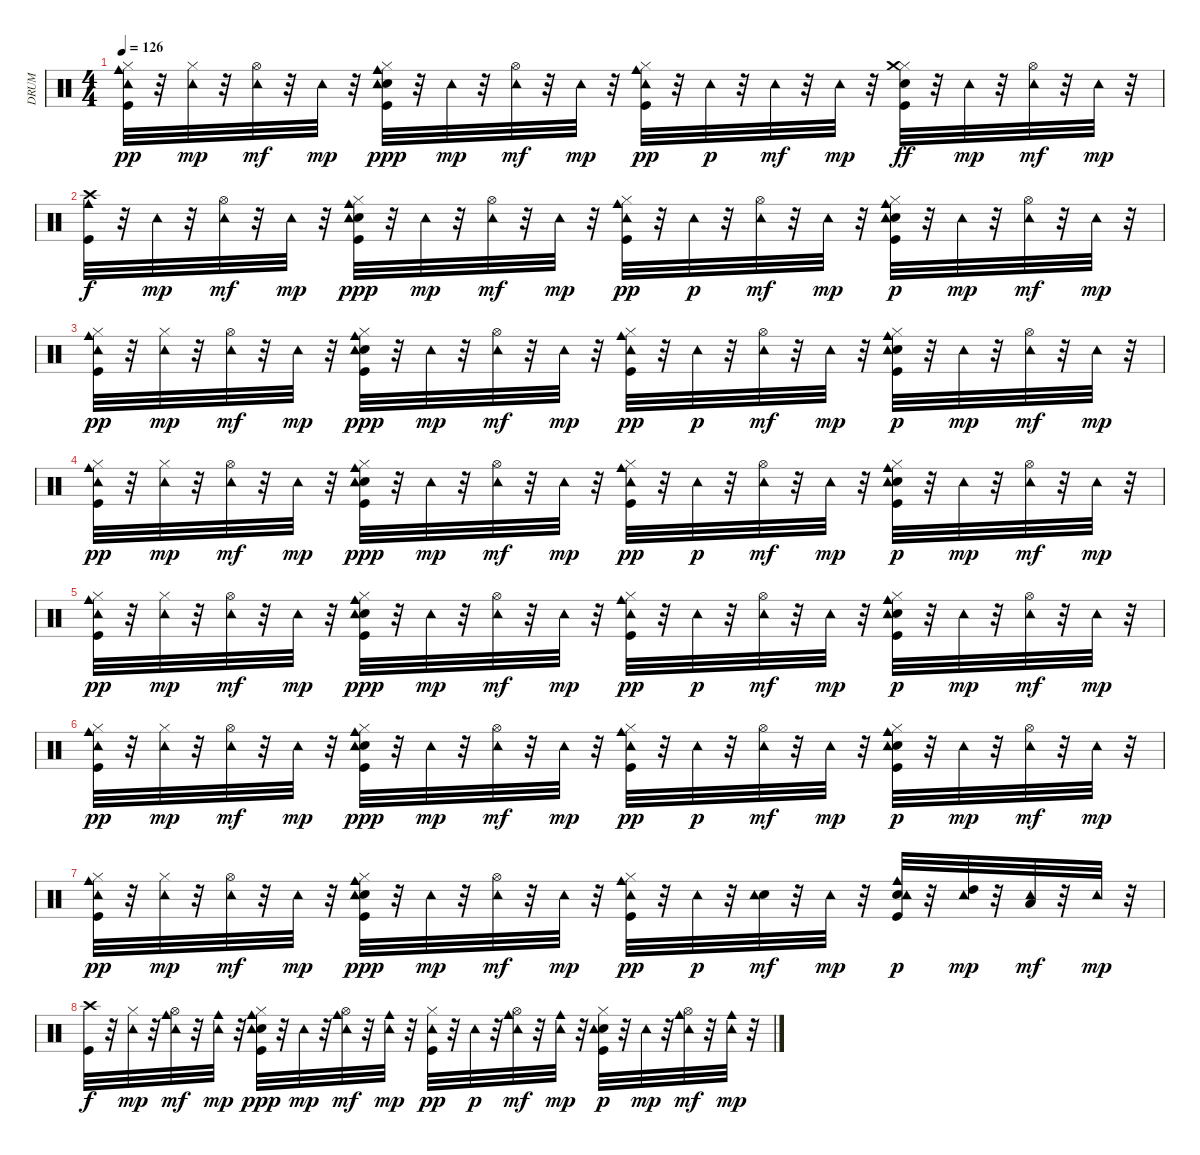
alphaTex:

\track ("DRUM" "DRUM") {instrument percussion}
\staff {score}
\articulation defaults
\ts (4 4)
\tempo 126
\clef neutral
\ks c
("Kick (hit)" "Hi-Hat (closed)" "Tambourine (hit)" "Cowbell medium (hit)").32{dy pp} r.32 ("Hi-Hat (closed)" "Tambourine (hit)").32{dy mp} r.32 ("Hi-Hat (open)" "Tambourine (hit)").32{dy mf} r.32 "Tambourine (hit)".32{dy mp} r.32 ("Kick (hit)" "Electric Snare (hit)" "Hi-Hat (closed)" "Tambourine (hit)" "Cowbell medium (hit)").32{dy ppp} r.32 "Tambourine (hit)".32{dy mp} r.32 ("Hi-Hat (open)" "Tambourine (hit)").32{dy mf} r.32 "Tambourine (hit)".32{dy mp} r.32 ("Kick (hit)" "Hi-Hat (closed)" "Tambourine (hit)" "Cowbell medium (hit)").32{dy pp} r.32 "Tambourine (hit)".32{dy p} r.32 "Tambourine (hit)".32{dy mf} r.32 "Tambourine (hit)".32{dy mp} r.32 ("Kick (hit)" "Electric Snare (hit)" "Hi-Hat (closed)" "Crash medium (hit)").32{dy ff} r.32 "Tambourine (hit)".32{dy mp} r.32 ("Hi-Hat (open)" "Tambourine (hit)").32{dy mf} r.32 "Tambourine (hit)".32{dy mp} r.32 |
("Kick (hit)" "Crash high (hit)" "Cowbell medium (hit)").32{dy f} r.32 "Tambourine (hit)".32{dy mp} r.32 ("Hi-Hat (open)" "Tambourine (hit)").32{dy mf} r.32 "Tambourine (hit)".32{dy mp} r.32 ("Kick (hit)" "Electric Snare (hit)" "Hi-Hat (closed)" "Tambourine (hit)" "Cowbell medium (hit)").32{dy ppp} r.32 "Tambourine (hit)".32{dy mp} r.32 ("Hi-Hat (open)" "Tambourine (hit)").32{dy mf} r.32 "Tambourine (hit)".32{dy mp} r.32 ("Kick (hit)" "Hi-Hat (closed)" "Tambourine (hit)" "Cowbell medium (hit)").32{dy pp} r.32 "Tambourine (hit)".32{dy p} r.32 ("Hi-Hat (open)" "Tambourine (hit)").32{dy mf} r.32 "Tambourine (hit)".32{dy mp} r.32 ("Kick (hit)" "Electric Snare (hit)" "Hi-Hat (closed)" "Tambourine (hit)" "Cowbell medium (hit)").32{dy p} r.32 "Tambourine (hit)".32{dy mp} r.32 ("Hi-Hat (open)" "Tambourine (hit)").32{dy mf} r.32 "Tambourine (hit)".32{dy mp} r.32 |
("Kick (hit)" "Hi-Hat (closed)" "Tambourine (hit)" "Cowbell medium (hit)").32{dy pp} r.32 ("Hi-Hat (closed)" "Tambourine (hit)").32{dy mp} r.32 ("Hi-Hat (open)" "Tambourine (hit)").32{dy mf} r.32 "Tambourine (hit)".32{dy mp} r.32 ("Kick (hit)" "Electric Snare (hit)" "Hi-Hat (closed)" "Tambourine (hit)" "Cowbell medium (hit)").32{dy ppp} r.32 "Tambourine (hit)".32{dy mp} r.32 ("Hi-Hat (open)" "Tambourine (hit)").32{dy mf} r.32 "Tambourine (hit)".32{dy mp} r.32 ("Kick (hit)" "Hi-Hat (closed)" "Tambourine (hit)" "Cowbell medium (hit)").32{dy pp} r.32 "Tambourine (hit)".32{dy p} r.32 ("Hi-Hat (open)" "Tambourine (hit)").32{dy mf} r.32 "Tambourine (hit)".32{dy mp} r.32 ("Kick (hit)" "Electric Snare (hit)" "Hi-Hat (closed)" "Tambourine (hit)" "Cowbell medium (hit)").32{dy p} r.32 "Tambourine (hit)".32{dy mp} r.32 ("Hi-Hat (open)" "Tambourine (hit)").32{dy mf} r.32 "Tambourine (hit)".32{dy mp} r.32 |
("Kick (hit)" "Hi-Hat (closed)" "Tambourine (hit)" "Cowbell medium (hit)").32{dy pp} r.32 ("Hi-Hat (closed)" "Tambourine (hit)").32{dy mp} r.32 ("Hi-Hat (open)" "Tambourine (hit)").32{dy mf} r.32 "Tambourine (hit)".32{dy mp} r.32 ("Kick (hit)" "Electric Snare (hit)" "Hi-Hat (closed)" "Tambourine (hit)" "Cowbell medium (hit)").32{dy ppp} r.32 "Tambourine (hit)".32{dy mp} r.32 ("Hi-Hat (open)" "Tambourine (hit)").32{dy mf} r.32 "Tambourine (hit)".32{dy mp} r.32 ("Kick (hit)" "Hi-Hat (closed)" "Tambourine (hit)" "Cowbell medium (hit)").32{dy pp} r.32 "Tambourine (hit)".32{dy p} r.32 ("Hi-Hat (open)" "Tambourine (hit)").32{dy mf} r.32 "Tambourine (hit)".32{dy mp} r.32 ("Kick (hit)" "Electric Snare (hit)" "Hi-Hat (closed)" "Tambourine (hit)" "Cowbell medium (hit)").32{dy p} r.32 "Tambourine (hit)".32{dy mp} r.32 ("Hi-Hat (open)" "Tambourine (hit)").32{dy mf} r.32 "Tambourine (hit)".32{dy mp} r.32 |
("Kick (hit)" "Hi-Hat (closed)" "Tambourine (hit)" "Cowbell medium (hit)").32{dy pp} r.32 ("Hi-Hat (closed)" "Tambourine (hit)").32{dy mp} r.32 ("Hi-Hat (open)" "Tambourine (hit)").32{dy mf} r.32 "Tambourine (hit)".32{dy mp} r.32 ("Kick (hit)" "Electric Snare (hit)" "Hi-Hat (closed)" "Tambourine (hit)" "Cowbell medium (hit)").32{dy ppp} r.32 "Tambourine (hit)".32{dy mp} r.32 ("Hi-Hat (open)" "Tambourine (hit)").32{dy mf} r.32 "Tambourine (hit)".32{dy mp} r.32 ("Kick (hit)" "Hi-Hat (closed)" "Tambourine (hit)" "Cowbell medium (hit)").32{dy pp} r.32 "Tambourine (hit)".32{dy p} r.32 ("Hi-Hat (open)" "Tambourine (hit)").32{dy mf} r.32 "Tambourine (hit)".32{dy mp} r.32 ("Kick (hit)" "Electric Snare (hit)" "Hi-Hat (closed)" "Tambourine (hit)" "Cowbell medium (hit)").32{dy p} r.32 "Tambourine (hit)".32{dy mp} r.32 ("Hi-Hat (open)" "Tambourine (hit)").32{dy mf} r.32 "Tambourine (hit)".32{dy mp} r.32 |
("Kick (hit)" "Hi-Hat (closed)" "Tambourine (hit)" "Cowbell medium (hit)").32{dy pp} r.32 ("Hi-Hat (closed)" "Tambourine (hit)").32{dy mp} r.32 ("Hi-Hat (open)" "Tambourine (hit)").32{dy mf} r.32 "Tambourine (hit)".32{dy mp} r.32 ("Kick (hit)" "Electric Snare (hit)" "Hi-Hat (closed)" "Tambourine (hit)" "Cowbell medium (hit)").32{dy ppp} r.32 "Tambourine (hit)".32{dy mp} r.32 ("Hi-Hat (open)" "Tambourine (hit)").32{dy mf} r.32 "Tambourine (hit)".32{dy mp} r.32 ("Kick (hit)" "Hi-Hat (closed)" "Tambourine (hit)" "Cowbell medium (hit)").32{dy pp} r.32 "Tambourine (hit)".32{dy p} r.32 ("Hi-Hat (open)" "Tambourine (hit)").32{dy mf} r.32 "Tambourine (hit)".32{dy mp} r.32 ("Kick (hit)" "Electric Snare (hit)" "Hi-Hat (closed)" "Tambourine (hit)" "Cowbell medium (hit)").32{dy p} r.32 "Tambourine (hit)".32{dy mp} r.32 ("Hi-Hat (open)" "Tambourine (hit)").32{dy mf} r.32 "Tambourine (hit)".32{dy mp} r.32 |
("Kick (hit)" "Hi-Hat (closed)" "Tambourine (hit)" "Cowbell medium (hit)").32{dy pp} r.32 ("Hi-Hat (closed)" "Tambourine (hit)").32{dy mp} r.32 ("Hi-Hat (open)" "Tambourine (hit)").32{dy mf} r.32 "Tambourine (hit)".32{dy mp} r.32 ("Kick (hit)" "Electric Snare (hit)" "Hi-Hat (closed)" "Tambourine (hit)" "Cowbell medium (hit)").32{dy ppp} r.32 "Tambourine (hit)".32{dy mp} r.32 ("Hi-Hat (open)" "Tambourine (hit)").32{dy mf} r.32 "Tambourine (hit)".32{dy mp} r.32 ("Kick (hit)" "Hi-Hat (closed)" "Tambourine (hit)" "Cowbell medium (hit)").32{dy pp} r.32 "Tambourine (hit)".32{dy p} r.32 ("Electric Snare (hit)" "Tambourine (hit)").32{dy mf} r.32 "Tambourine (hit)".32{dy mp} r.32 ("Kick (hit)" "Electric Snare (hit)" "Tambourine (hit)" "Cowbell medium (hit)").32{dy p} r.32 ("High Tom (hit)" "Tambourine (hit)").32{dy mp} r.32 ("Low Tom (hit)" "Tambourine (hit)").32{dy mf} r.32 "Tambourine (hit)".32{dy mp} r.32 |
("Kick (hit)" "Crash high (hit)").32{dy f} r.32 ("Hi-Hat (closed)" "Tambourine (hit)").32{dy mp} r.32 ("Hi-Hat (open)" "Tambourine (hit)" "Cowbell medium (hit)").32{dy mf} r.32 ("Tambourine (hit)" "Cowbell medium (hit)").32{dy mp} r.32 ("Kick (hit)" "Electric Snare (hit)" "Hi-Hat (closed)" "Tambourine (hit)" "Cowbell medium (hit)").32{dy ppp} r.32 "Tambourine (hit)".32{dy mp} r.32 ("Hi-Hat (open)" "Tambourine (hit)" "Cowbell medium (hit)").32{dy mf} r.32 ("Tambourine (hit)" "Cowbell medium (hit)").32{dy mp} r.32 ("Kick (hit)" "Hi-Hat (closed)" "Tambourine (hit)").32{dy pp} r.32 "Tambourine (hit)".32{dy p} r.32 ("Hi-Hat (open)" "Tambourine (hit)" "Cowbell medium (hit)").32{dy mf} r.32 ("Tambourine (hit)" "Cowbell medium (hit)").32{dy mp} r.32 ("Kick (hit)" "Electric Snare (hit)" "Hi-Hat (closed)" "Tambourine (hit)").32{dy p} r.32 "Tambourine (hit)".32{dy mp} r.32 ("Hi-Hat (open)" "Tambourine (hit)" "Cowbell medium (hit)").32{dy mf} r.32 ("Tambourine (hit)" "Cowbell medium (hit)").32{dy mp} r.32
